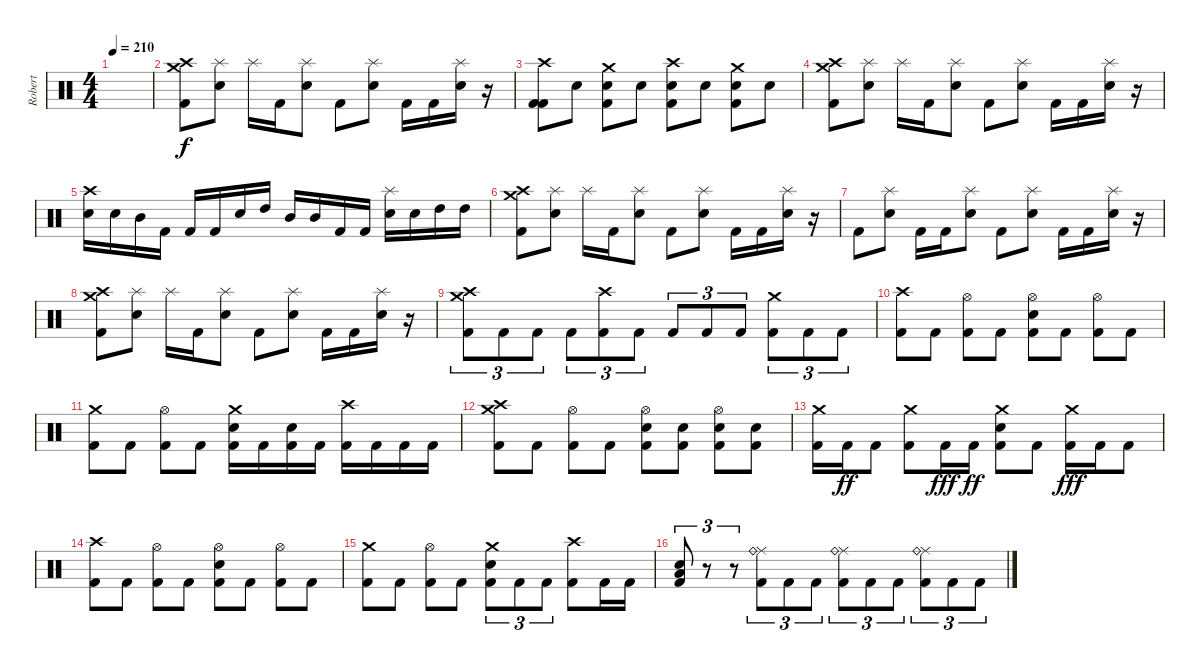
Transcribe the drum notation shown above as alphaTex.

\track ("Robert" "Robert") {instrument percussion}
\staff {score}
\articulation defaults
\ts (4 4)
\tempo 210
\clef neutral
\ks c
|
("Crash medium (hit)" "Crash high (hit)" "Kick (hit) 2").8 ("Splash (hit)" "Electric Snare (hit)").8 "Splash (hit)".16 "Kick (hit) 2".16 ("Splash (hit)" "Electric Snare (hit)").8 "Kick (hit) 2".8 ("Splash (hit)" "Electric Snare (hit)").8 "Kick (hit) 2".16 "Kick (hit) 2".16 ("Splash (hit)" "Electric Snare (hit)").16 r.16 |
("Kick (hit) 2" "Kick (hit) 2" "Crash high (hit)").8 "Electric Snare (hit)".8 ("Electric Snare (hit)" "Kick (hit) 2" "Crash medium (hit)").8 "Electric Snare (hit)".8 ("Electric Snare (hit)" "Kick (hit) 2" "Crash high (hit)").8 "Electric Snare (hit)".8 ("Electric Snare (hit)" "Kick (hit) 2" "Crash medium (hit)").8 "Electric Snare (hit)".8 |
("Crash medium (hit)" "Crash high (hit)" "Kick (hit) 2").8 ("Splash (hit)" "Electric Snare (hit)").8 "Splash (hit)".16 "Kick (hit) 2".16 ("Splash (hit)" "Electric Snare (hit)").8 "Kick (hit) 2".8 ("Splash (hit)" "Electric Snare (hit)").8 "Kick (hit) 2".16 "Kick (hit) 2".16 ("Splash (hit)" "Electric Snare (hit)").16 r.16 |
("Electric Snare (hit)" "Crash high (hit)").16 "Electric Snare (hit)".16 "Mid Tom (hit)".16 "Kick (hit) 2".16 "Kick (hit) 2".16 "Kick (hit) 2".16 "Electric Snare (hit)".16 "High Tom (hit)".16 "Mid Tom (hit)".16 "Mid Tom (hit)".16 "Kick (hit) 2".16 "Kick (hit) 2".16 ("Electric Snare (hit)" "Splash (hit)").16 "Electric Snare (hit)".16 "High Tom (hit)".16 "High Tom (hit)".16 |
("Crash medium (hit)" "Crash high (hit)" "Kick (hit) 2").8 ("Splash (hit)" "Electric Snare (hit)").8 "Splash (hit)".16 "Kick (hit) 2".16 ("Splash (hit)" "Electric Snare (hit)").8 "Kick (hit) 2".8 ("Splash (hit)" "Electric Snare (hit)").8 "Kick (hit) 2".16 "Kick (hit) 2".16 ("Splash (hit)" "Electric Snare (hit)").16 r.16 |
"Kick (hit) 2".8 ("Splash (hit)" "Electric Snare (hit)").8 "Kick (hit) 2".16 "Kick (hit) 2".16 ("Splash (hit)" "Electric Snare (hit)").8 "Kick (hit) 2".8 ("Splash (hit)" "Electric Snare (hit)").8 "Kick (hit) 2".16 "Kick (hit) 2".16 ("Splash (hit)" "Electric Snare (hit)").16 r.16 |
("Crash medium (hit)" "Crash high (hit)" "Kick (hit) 2").8 ("Splash (hit)" "Electric Snare (hit)").8 "Splash (hit)".16 "Kick (hit) 2".16 ("Splash (hit)" "Electric Snare (hit)").8 "Kick (hit) 2".8 ("Splash (hit)" "Electric Snare (hit)").8 "Kick (hit) 2".16 "Kick (hit) 2".16 ("Splash (hit)" "Electric Snare (hit)").16 r.16 |
("Crash medium (hit)" "Crash high (hit)" "Kick (hit) 2").8{tu (3 2)} "Kick (hit) 2".8{tu (3 2)} "Kick (hit) 2".8{tu (3 2)} "Kick (hit) 2".8{tu (3 2)} ("Crash high (hit)" "Kick (hit) 2").8{tu (3 2)} "Kick (hit) 2".8{tu (3 2)} "Kick (hit) 2".8{tu (3 2)} "Kick (hit) 2".8{tu (3 2)} "Kick (hit) 2".8{tu (3 2)} ("Crash medium (hit)" "Kick (hit) 2").8{tu (3 2)} "Kick (hit) 2".8{tu (3 2)} "Kick (hit) 2".8{tu (3 2)} |
("Crash high (hit)" "Kick (hit) 2").8 "Kick (hit) 2".8 ("Hi-Hat (open)" "Kick (hit) 2").8 "Kick (hit) 2".8 ("Electric Snare (hit)" "Hi-Hat (open)" "Kick (hit) 2").8 "Kick (hit) 2".8 ("Hi-Hat (open)" "Kick (hit) 2").8 "Kick (hit) 2".8 |
("Crash medium (hit)" "Kick (hit) 2").8 "Kick (hit) 2".8 ("Hi-Hat (open)" "Kick (hit) 2").8 "Kick (hit) 2".8 ("Electric Snare (hit)" "Crash medium (hit)" "Kick (hit) 2").16 "Kick (hit) 2".16 ("Electric Snare (hit)" "Kick (hit) 2").16 "Kick (hit) 2".16 ("Crash high (hit)" "Kick (hit) 2").16 "Kick (hit) 2".16 "Kick (hit) 2".16 "Kick (hit) 2".16 |
("Crash medium (hit)" "Crash high (hit)" "Kick (hit) 2").8 "Kick (hit) 2".8 ("Hi-Hat (open)" "Kick (hit) 2").8 "Kick (hit) 2".8 ("Hi-Hat (open)" "Electric Snare (hit)" "Kick (hit) 2").8 ("Electric Snare (hit)" "Kick (hit) 2").8 ("Hi-Hat (open)" "Electric Snare (hit)" "Kick (hit) 2").8 ("Electric Snare (hit)" "Kick (hit) 2").8 |
("Crash medium (hit)" "Kick (hit) 2").16 "Kick (hit) 2".16{dy ff} "Kick (hit) 2".8 ("Crash medium (hit)" "Kick (hit) 2").8 "Kick (hit) 2".16{dy fff} "Kick (hit) 2".16{dy ff} ("Crash medium (hit)" "Electric Snare (hit)" "Kick (hit) 2").8 "Kick (hit) 2".8 ("Crash medium (hit)" "Kick (hit) 2").16{dy fff} "Kick (hit) 2".16 "Kick (hit) 2".8 |
("Crash high (hit)" "Kick (hit) 2").8 "Kick (hit) 2".8 ("Hi-Hat (open)" "Kick (hit) 2").8 "Kick (hit) 2".8 ("Electric Snare (hit)" "Hi-Hat (open)" "Kick (hit) 2").8 "Kick (hit) 2".8 ("Hi-Hat (open)" "Kick (hit) 2").8 "Kick (hit) 2".8 |
("Crash medium (hit)" "Kick (hit) 2").8 "Kick (hit) 2".8 ("Hi-Hat (open)" "Kick (hit) 2").8 "Kick (hit) 2".8 ("Electric Snare (hit)" "Crash medium (hit)" "Kick (hit) 2").8{tu (3 2)} "Kick (hit) 2".8{tu (3 2)} "Kick (hit) 2".8{tu (3 2)} ("Crash high (hit)" "Kick (hit) 2").8 "Kick (hit) 2".16 "Kick (hit) 2".16 |
("Electric Snare (hit)" "Low Floor Tom (hit)" "Kick (hit) 2").8{tu (3 2)} r.8{tu (3 2)} r.8{tu (3 2)} ("Kick (hit) 2" "Ride (middle)" "Ride (bell)").8{tu (3 2)} "Kick (hit) 2".8{tu (3 2)} "Kick (hit) 2".8{tu (3 2)} ("Kick (hit) 2" "Ride (middle)" "Ride (bell)").8{tu (3 2)} "Kick (hit) 2".8{tu (3 2)} "Kick (hit) 2".8{tu (3 2)} ("Kick (hit) 2" "Ride (middle)" "Ride (bell)").8{tu (3 2)} "Kick (hit) 2".8{tu (3 2)} "Kick (hit) 2".8{tu (3 2)}
